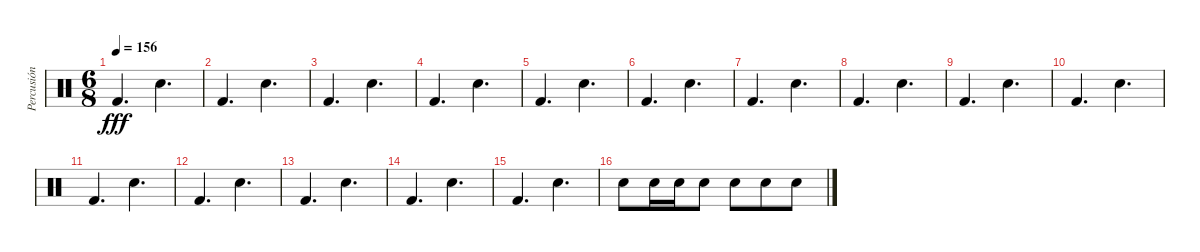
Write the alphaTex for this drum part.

\track ("Percusión" "Percusión") {instrument percussion}
\staff {score}
\articulation defaults
\ts (6 8)
\tempo 156
\clef neutral
\ks c "Kick (hit) 2".4{d dy fff} "Snare (hit) 2".4{d}
|
"Kick (hit) 2".4{d} "Snare (hit) 2".4{d} |
"Kick (hit) 2".4{d} "Snare (hit) 2".4{d} |
"Kick (hit) 2".4{d} "Snare (hit) 2".4{d} |
"Kick (hit) 2".4{d} "Snare (hit) 2".4{d} |
"Kick (hit) 2".4{d} "Snare (hit) 2".4{d} |
"Kick (hit) 2".4{d} "Snare (hit) 2".4{d} |
"Kick (hit) 2".4{d} "Snare (hit) 2".4{d} |
"Kick (hit) 2".4{d} "Snare (hit) 2".4{d} |
"Kick (hit) 2".4{d} "Snare (hit) 2".4{d} |
"Kick (hit) 2".4{d} "Snare (hit) 2".4{d} |
"Kick (hit) 2".4{d} "Snare (hit) 2".4{d} |
"Kick (hit) 2".4{d} "Snare (hit) 2".4{d} |
"Kick (hit) 2".4{d} "Snare (hit) 2".4{d} |
"Kick (hit) 2".4{d} "Snare (hit) 2".4{d} |
"Snare (hit) 2".8 "Snare (hit) 2".16 "Snare (hit) 2".16 "Snare (hit) 2".8 "Snare (hit) 2".8 "Snare (hit) 2".8 "Snare (hit) 2".8
